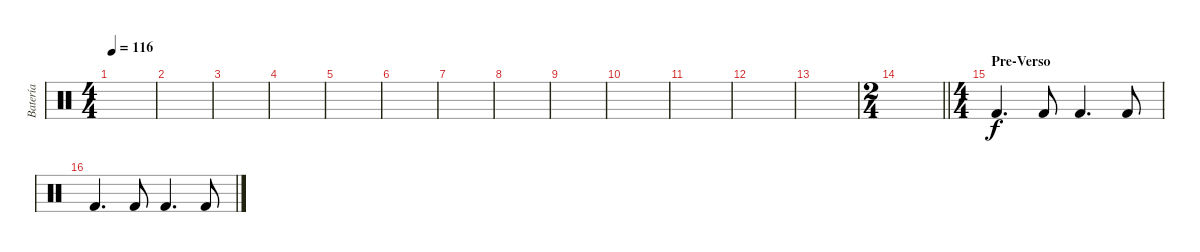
\track ("Batería" "Batería") {instrument percussion}
\staff {score}
\articulation defaults
\ts (4 4)
\tempo 116
\clef neutral
\ks c
|
|
|
|
|
|
|
|
|
|
|
|
|
\ts (2 4)
\barLineRight lightlight
|
\ts (4 4)
\section ("" "Pre-Verso")
"Kick (hit) 2".4{d} "Kick (hit) 2".8 "Kick (hit) 2".4{d} "Kick (hit) 2".8 |
"Kick (hit) 2".4{d} "Kick (hit) 2".8 "Kick (hit) 2".4{d} "Kick (hit) 2".8
